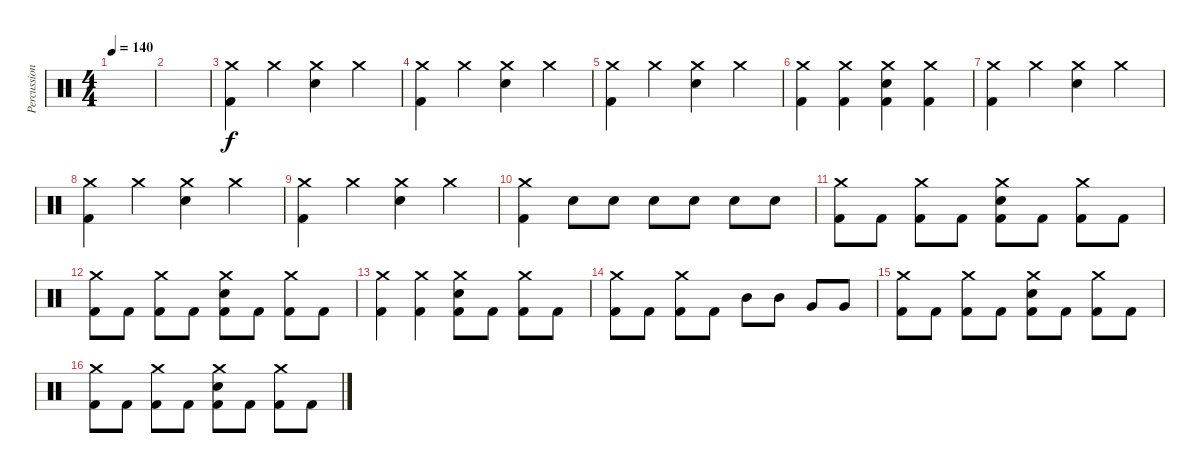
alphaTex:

\track ("Percussion" "Percussion") {instrument percussion}
\staff {score}
\articulation defaults
\ts (4 4)
\tempo 140
\clef neutral
\ks c
|
|
("Crash medium (hit)" "Kick (hit) 2").4 "Crash medium (hit)".4 ("Crash medium (hit)" "Electric Snare (hit)").4 "Crash medium (hit)".4 |
("Crash medium (hit)" "Kick (hit) 2").4 "Crash medium (hit)".4 ("Crash medium (hit)" "Electric Snare (hit)").4 "Crash medium (hit)".4 |
("Crash medium (hit)" "Kick (hit) 2").4 "Crash medium (hit)".4 ("Crash medium (hit)" "Electric Snare (hit)").4 "Crash medium (hit)".4 |
("Crash medium (hit)" "Kick (hit) 2").4 ("Crash medium (hit)" "Kick (hit) 2").4 ("Crash medium (hit)" "Electric Snare (hit)" "Kick (hit) 2").4 ("Crash medium (hit)" "Kick (hit) 2").4 |
("Crash medium (hit)" "Kick (hit) 2").4 "Crash medium (hit)".4 ("Crash medium (hit)" "Electric Snare (hit)").4 "Crash medium (hit)".4 |
("Crash medium (hit)" "Kick (hit) 2").4 "Crash medium (hit)".4 ("Crash medium (hit)" "Electric Snare (hit)").4 "Crash medium (hit)".4 |
("Crash medium (hit)" "Kick (hit) 2").4 "Crash medium (hit)".4 ("Crash medium (hit)" "Electric Snare (hit)").4 "Crash medium (hit)".4 |
("Crash medium (hit)" "Kick (hit) 2").4 "Electric Snare (hit)".8 "Electric Snare (hit)".8 "Electric Snare (hit)".8 "Electric Snare (hit)".8 "Electric Snare (hit)".8 "Electric Snare (hit)".8 |
("Crash medium (hit)" "Kick (hit) 2").8 "Kick (hit) 2".8 ("Crash medium (hit)" "Kick (hit) 2").8 "Kick (hit) 2".8 ("Crash medium (hit)" "Electric Snare (hit)" "Kick (hit) 2").8 "Kick (hit) 2".8 ("Crash medium (hit)" "Kick (hit) 2").8 "Kick (hit) 2".8 |
("Crash medium (hit)" "Kick (hit) 2").8 "Kick (hit) 2".8 ("Crash medium (hit)" "Kick (hit) 2").8 "Kick (hit) 2".8 ("Crash medium (hit)" "Electric Snare (hit)" "Kick (hit) 2").8 "Kick (hit) 2".8 ("Crash medium (hit)" "Kick (hit) 2").8 "Kick (hit) 2".8 |
("Crash medium (hit)" "Kick (hit) 2").4 ("Crash medium (hit)" "Kick (hit) 2").4 ("Crash medium (hit)" "Electric Snare (hit)" "Kick (hit) 2").8 "Kick (hit) 2".8 ("Crash medium (hit)" "Kick (hit) 2").8 "Kick (hit) 2".8 |
("Crash medium (hit)" "Kick (hit) 2").8 "Kick (hit) 2".8 ("Crash medium (hit)" "Kick (hit) 2").8 "Kick (hit) 2".8 "Mid Tom (hit)".8 "Mid Tom (hit)".8 "Very Low Tom (hit)".8 "Very Low Tom (hit)".8 |
("Crash medium (hit)" "Kick (hit) 2").8 "Kick (hit) 2".8 ("Crash medium (hit)" "Kick (hit) 2").8 "Kick (hit) 2".8 ("Crash medium (hit)" "Electric Snare (hit)" "Kick (hit) 2").8 "Kick (hit) 2".8 ("Crash medium (hit)" "Kick (hit) 2").8 "Kick (hit) 2".8 |
("Crash medium (hit)" "Kick (hit) 2").8 "Kick (hit) 2".8 ("Crash medium (hit)" "Kick (hit) 2").8 "Kick (hit) 2".8 ("Crash medium (hit)" "Electric Snare (hit)" "Kick (hit) 2").8 "Kick (hit) 2".8 ("Crash medium (hit)" "Kick (hit) 2").8 "Kick (hit) 2".8
